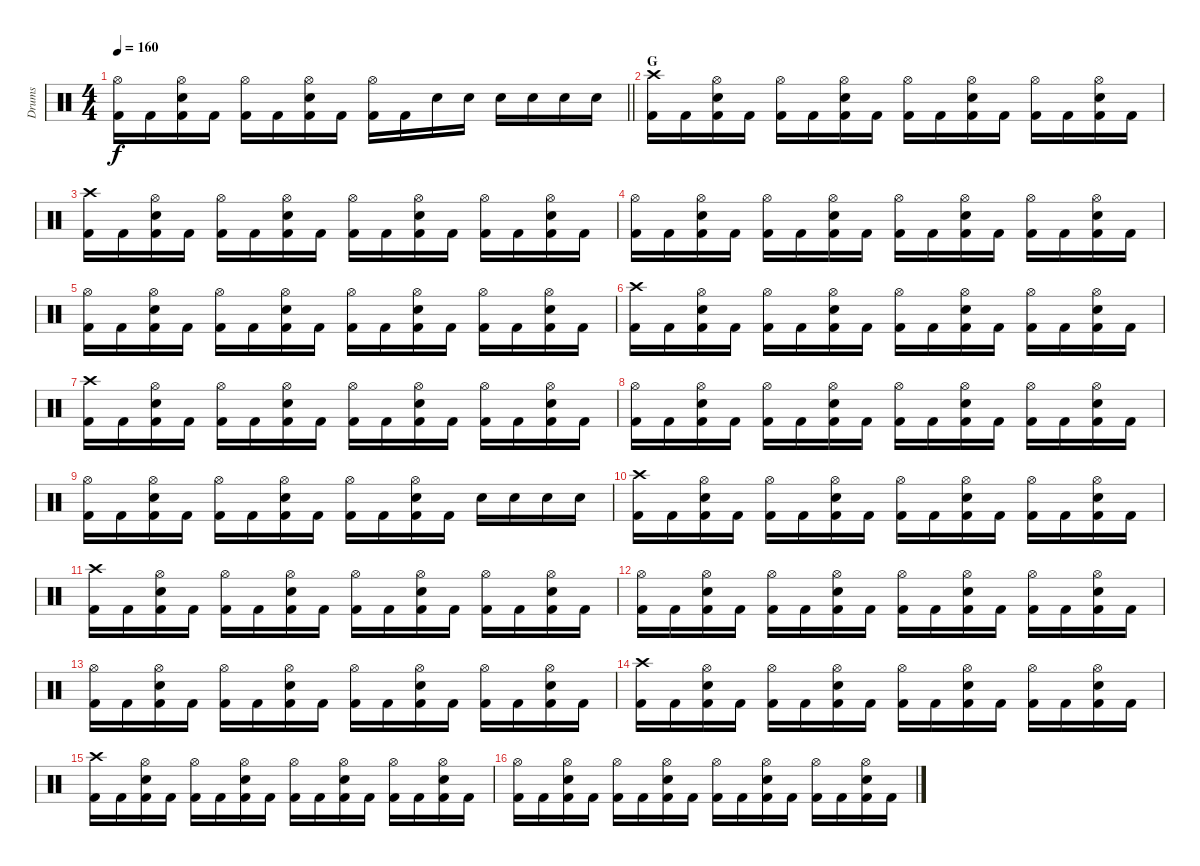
\track ("Drums" "Drums") {instrument percussion}
\staff {score}
\articulation defaults
\ts (4 4)
\tempo 160
\clef neutral
\barLineRight lightlight
\ks c
("Hi-Hat (open)" "Kick (hit) 2").16{dy f} "Kick (hit) 2".16 ("Hi-Hat (open)" "Snare (hit) 2" "Kick (hit) 2").16 "Kick (hit) 2".16 ("Hi-Hat (open)" "Kick (hit) 2").16 "Kick (hit) 2".16 ("Hi-Hat (open)" "Snare (hit) 2" "Kick (hit) 2").16 "Kick (hit) 2".16 ("Hi-Hat (open)" "Kick (hit) 2").16 "Kick (hit) 2".16 "Snare (hit) 2".16 "Snare (hit) 2".16 "Snare (hit) 2".16 "Snare (hit) 2".16 "Snare (hit) 2".16 "Snare (hit) 2".16 |
\section ("" "G")
("Crash high (hit)" "Kick (hit) 2").16 "Kick (hit) 2".16 ("Hi-Hat (open)" "Snare (hit) 2" "Kick (hit) 2").16 "Kick (hit) 2".16 ("Hi-Hat (open)" "Kick (hit) 2").16 "Kick (hit) 2".16 ("Hi-Hat (open)" "Snare (hit) 2" "Kick (hit) 2").16 "Kick (hit) 2".16 ("Hi-Hat (open)" "Kick (hit) 2").16 "Kick (hit) 2".16 ("Hi-Hat (open)" "Snare (hit) 2" "Kick (hit) 2").16 "Kick (hit) 2".16 ("Hi-Hat (open)" "Kick (hit) 2").16 "Kick (hit) 2".16 ("Hi-Hat (open)" "Snare (hit) 2" "Kick (hit) 2").16 "Kick (hit) 2".16 |
("Crash high (hit)" "Kick (hit) 2").16 "Kick (hit) 2".16 ("Hi-Hat (open)" "Snare (hit) 2" "Kick (hit) 2").16 "Kick (hit) 2".16 ("Hi-Hat (open)" "Kick (hit) 2").16 "Kick (hit) 2".16 ("Hi-Hat (open)" "Snare (hit) 2" "Kick (hit) 2").16 "Kick (hit) 2".16 ("Hi-Hat (open)" "Kick (hit) 2").16 "Kick (hit) 2".16 ("Hi-Hat (open)" "Snare (hit) 2" "Kick (hit) 2").16 "Kick (hit) 2".16 ("Hi-Hat (open)" "Kick (hit) 2").16 "Kick (hit) 2".16 ("Hi-Hat (open)" "Snare (hit) 2" "Kick (hit) 2").16 "Kick (hit) 2".16 |
("Hi-Hat (open)" "Kick (hit) 2").16 "Kick (hit) 2".16 ("Hi-Hat (open)" "Snare (hit) 2" "Kick (hit) 2").16 "Kick (hit) 2".16 ("Hi-Hat (open)" "Kick (hit) 2").16 "Kick (hit) 2".16 ("Hi-Hat (open)" "Snare (hit) 2" "Kick (hit) 2").16 "Kick (hit) 2".16 ("Hi-Hat (open)" "Kick (hit) 2").16 "Kick (hit) 2".16 ("Hi-Hat (open)" "Snare (hit) 2" "Kick (hit) 2").16 "Kick (hit) 2".16 ("Hi-Hat (open)" "Kick (hit) 2").16 "Kick (hit) 2".16 ("Hi-Hat (open)" "Snare (hit) 2" "Kick (hit) 2").16 "Kick (hit) 2".16 |
("Hi-Hat (open)" "Kick (hit) 2").16 "Kick (hit) 2".16 ("Hi-Hat (open)" "Snare (hit) 2" "Kick (hit) 2").16 "Kick (hit) 2".16 ("Hi-Hat (open)" "Kick (hit) 2").16 "Kick (hit) 2".16 ("Hi-Hat (open)" "Snare (hit) 2" "Kick (hit) 2").16 "Kick (hit) 2".16 ("Hi-Hat (open)" "Kick (hit) 2").16 "Kick (hit) 2".16 ("Hi-Hat (open)" "Snare (hit) 2" "Kick (hit) 2").16 "Kick (hit) 2".16 ("Hi-Hat (open)" "Kick (hit) 2").16 "Kick (hit) 2".16 ("Hi-Hat (open)" "Snare (hit) 2" "Kick (hit) 2").16 "Kick (hit) 2".16 |
("Crash high (hit)" "Kick (hit) 2").16 "Kick (hit) 2".16 ("Hi-Hat (open)" "Snare (hit) 2" "Kick (hit) 2").16 "Kick (hit) 2".16 ("Hi-Hat (open)" "Kick (hit) 2").16 "Kick (hit) 2".16 ("Hi-Hat (open)" "Snare (hit) 2" "Kick (hit) 2").16 "Kick (hit) 2".16 ("Hi-Hat (open)" "Kick (hit) 2").16 "Kick (hit) 2".16 ("Hi-Hat (open)" "Snare (hit) 2" "Kick (hit) 2").16 "Kick (hit) 2".16 ("Hi-Hat (open)" "Kick (hit) 2").16 "Kick (hit) 2".16 ("Hi-Hat (open)" "Snare (hit) 2" "Kick (hit) 2").16 "Kick (hit) 2".16 |
("Crash high (hit)" "Kick (hit) 2").16 "Kick (hit) 2".16 ("Hi-Hat (open)" "Snare (hit) 2" "Kick (hit) 2").16 "Kick (hit) 2".16 ("Hi-Hat (open)" "Kick (hit) 2").16 "Kick (hit) 2".16 ("Hi-Hat (open)" "Snare (hit) 2" "Kick (hit) 2").16 "Kick (hit) 2".16 ("Hi-Hat (open)" "Kick (hit) 2").16 "Kick (hit) 2".16 ("Hi-Hat (open)" "Snare (hit) 2" "Kick (hit) 2").16 "Kick (hit) 2".16 ("Hi-Hat (open)" "Kick (hit) 2").16 "Kick (hit) 2".16 ("Hi-Hat (open)" "Snare (hit) 2" "Kick (hit) 2").16 "Kick (hit) 2".16 |
("Hi-Hat (open)" "Kick (hit) 2").16 "Kick (hit) 2".16 ("Hi-Hat (open)" "Snare (hit) 2" "Kick (hit) 2").16 "Kick (hit) 2".16 ("Hi-Hat (open)" "Kick (hit) 2").16 "Kick (hit) 2".16 ("Hi-Hat (open)" "Snare (hit) 2" "Kick (hit) 2").16 "Kick (hit) 2".16 ("Hi-Hat (open)" "Kick (hit) 2").16 "Kick (hit) 2".16 ("Hi-Hat (open)" "Snare (hit) 2" "Kick (hit) 2").16 "Kick (hit) 2".16 ("Hi-Hat (open)" "Kick (hit) 2").16 "Kick (hit) 2".16 ("Hi-Hat (open)" "Snare (hit) 2" "Kick (hit) 2").16 "Kick (hit) 2".16 |
("Hi-Hat (open)" "Kick (hit) 2").16 "Kick (hit) 2".16 ("Hi-Hat (open)" "Snare (hit) 2" "Kick (hit) 2").16 "Kick (hit) 2".16 ("Hi-Hat (open)" "Kick (hit) 2").16 "Kick (hit) 2".16 ("Hi-Hat (open)" "Snare (hit) 2" "Kick (hit) 2").16 "Kick (hit) 2".16 ("Hi-Hat (open)" "Kick (hit) 2").16 "Kick (hit) 2".16 ("Hi-Hat (open)" "Snare (hit) 2" "Kick (hit) 2").16 "Kick (hit) 2".16 "Snare (hit) 2".16 "Snare (hit) 2".16 "Snare (hit) 2".16 "Snare (hit) 2".16 |
("Crash high (hit)" "Kick (hit) 2").16 "Kick (hit) 2".16 ("Hi-Hat (open)" "Snare (hit) 2" "Kick (hit) 2").16 "Kick (hit) 2".16 ("Hi-Hat (open)" "Kick (hit) 2").16 "Kick (hit) 2".16 ("Hi-Hat (open)" "Snare (hit) 2" "Kick (hit) 2").16 "Kick (hit) 2".16 ("Hi-Hat (open)" "Kick (hit) 2").16 "Kick (hit) 2".16 ("Hi-Hat (open)" "Snare (hit) 2" "Kick (hit) 2").16 "Kick (hit) 2".16 ("Hi-Hat (open)" "Kick (hit) 2").16 "Kick (hit) 2".16 ("Hi-Hat (open)" "Snare (hit) 2" "Kick (hit) 2").16 "Kick (hit) 2".16 |
("Crash high (hit)" "Kick (hit) 2").16 "Kick (hit) 2".16 ("Hi-Hat (open)" "Snare (hit) 2" "Kick (hit) 2").16 "Kick (hit) 2".16 ("Hi-Hat (open)" "Kick (hit) 2").16 "Kick (hit) 2".16 ("Hi-Hat (open)" "Snare (hit) 2" "Kick (hit) 2").16 "Kick (hit) 2".16 ("Hi-Hat (open)" "Kick (hit) 2").16 "Kick (hit) 2".16 ("Hi-Hat (open)" "Snare (hit) 2" "Kick (hit) 2").16 "Kick (hit) 2".16 ("Hi-Hat (open)" "Kick (hit) 2").16 "Kick (hit) 2".16 ("Hi-Hat (open)" "Snare (hit) 2" "Kick (hit) 2").16 "Kick (hit) 2".16 |
("Hi-Hat (open)" "Kick (hit) 2").16 "Kick (hit) 2".16 ("Hi-Hat (open)" "Snare (hit) 2" "Kick (hit) 2").16 "Kick (hit) 2".16 ("Hi-Hat (open)" "Kick (hit) 2").16 "Kick (hit) 2".16 ("Hi-Hat (open)" "Snare (hit) 2" "Kick (hit) 2").16 "Kick (hit) 2".16 ("Hi-Hat (open)" "Kick (hit) 2").16 "Kick (hit) 2".16 ("Hi-Hat (open)" "Snare (hit) 2" "Kick (hit) 2").16 "Kick (hit) 2".16 ("Hi-Hat (open)" "Kick (hit) 2").16 "Kick (hit) 2".16 ("Hi-Hat (open)" "Snare (hit) 2" "Kick (hit) 2").16 "Kick (hit) 2".16 |
("Hi-Hat (open)" "Kick (hit) 2").16 "Kick (hit) 2".16 ("Hi-Hat (open)" "Snare (hit) 2" "Kick (hit) 2").16 "Kick (hit) 2".16 ("Hi-Hat (open)" "Kick (hit) 2").16 "Kick (hit) 2".16 ("Hi-Hat (open)" "Snare (hit) 2" "Kick (hit) 2").16 "Kick (hit) 2".16 ("Hi-Hat (open)" "Kick (hit) 2").16 "Kick (hit) 2".16 ("Hi-Hat (open)" "Snare (hit) 2" "Kick (hit) 2").16 "Kick (hit) 2".16 ("Hi-Hat (open)" "Kick (hit) 2").16 "Kick (hit) 2".16 ("Hi-Hat (open)" "Snare (hit) 2" "Kick (hit) 2").16 "Kick (hit) 2".16 |
("Crash high (hit)" "Kick (hit) 2").16 "Kick (hit) 2".16 ("Hi-Hat (open)" "Snare (hit) 2" "Kick (hit) 2").16 "Kick (hit) 2".16 ("Hi-Hat (open)" "Kick (hit) 2").16 "Kick (hit) 2".16 ("Hi-Hat (open)" "Snare (hit) 2" "Kick (hit) 2").16 "Kick (hit) 2".16 ("Hi-Hat (open)" "Kick (hit) 2").16 "Kick (hit) 2".16 ("Hi-Hat (open)" "Snare (hit) 2" "Kick (hit) 2").16 "Kick (hit) 2".16 ("Hi-Hat (open)" "Kick (hit) 2").16 "Kick (hit) 2".16 ("Hi-Hat (open)" "Snare (hit) 2" "Kick (hit) 2").16 "Kick (hit) 2".16 |
("Crash high (hit)" "Kick (hit) 2").16 "Kick (hit) 2".16 ("Hi-Hat (open)" "Snare (hit) 2" "Kick (hit) 2").16 "Kick (hit) 2".16 ("Hi-Hat (open)" "Kick (hit) 2").16 "Kick (hit) 2".16 ("Hi-Hat (open)" "Snare (hit) 2" "Kick (hit) 2").16 "Kick (hit) 2".16 ("Hi-Hat (open)" "Kick (hit) 2").16 "Kick (hit) 2".16 ("Hi-Hat (open)" "Snare (hit) 2" "Kick (hit) 2").16 "Kick (hit) 2".16 ("Hi-Hat (open)" "Kick (hit) 2").16 "Kick (hit) 2".16 ("Hi-Hat (open)" "Snare (hit) 2" "Kick (hit) 2").16 "Kick (hit) 2".16 |
("Hi-Hat (open)" "Kick (hit) 2").16 "Kick (hit) 2".16 ("Hi-Hat (open)" "Snare (hit) 2" "Kick (hit) 2").16 "Kick (hit) 2".16 ("Hi-Hat (open)" "Kick (hit) 2").16 "Kick (hit) 2".16 ("Hi-Hat (open)" "Snare (hit) 2" "Kick (hit) 2").16 "Kick (hit) 2".16 ("Hi-Hat (open)" "Kick (hit) 2").16 "Kick (hit) 2".16 ("Hi-Hat (open)" "Snare (hit) 2" "Kick (hit) 2").16 "Kick (hit) 2".16 ("Hi-Hat (open)" "Kick (hit) 2").16 "Kick (hit) 2".16 ("Hi-Hat (open)" "Snare (hit) 2" "Kick (hit) 2").16 "Kick (hit) 2".16
